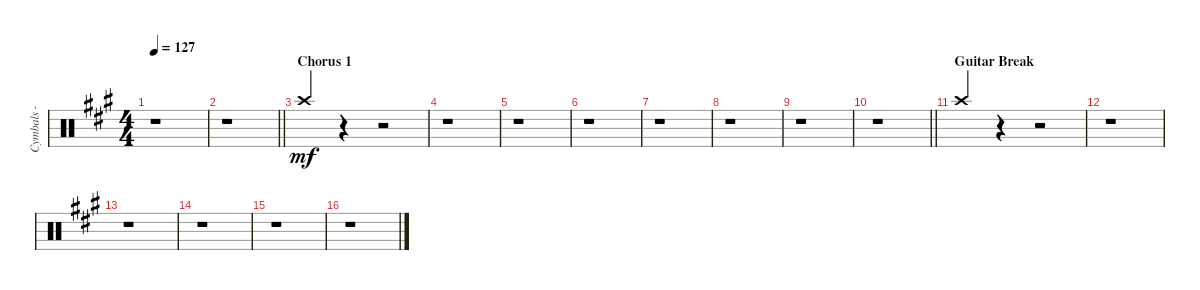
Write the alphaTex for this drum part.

\track ("Cymbals - crash" "Cymbals - ") {instrument percussion}
\staff {score}
\articulation defaults
\ts (4 4)
\tempo 127
\clef neutral
\ks a
r.1{dy mf} |
\barLineRight lightlight
r.1 |
\section ("" "Chorus 1")
"Crash high (hit)".4{beam Up} r.4 r.2 |
r.1 |
r.1 |
r.1 |
r.1 |
r.1 |
r.1 |
\barLineRight lightlight
r.1 |
\section ("" "Guitar Break")
"Crash high (hit)".4{beam Up} r.4 r.2 |
r.1 |
r.1 |
r.1 |
r.1 |
r.1
